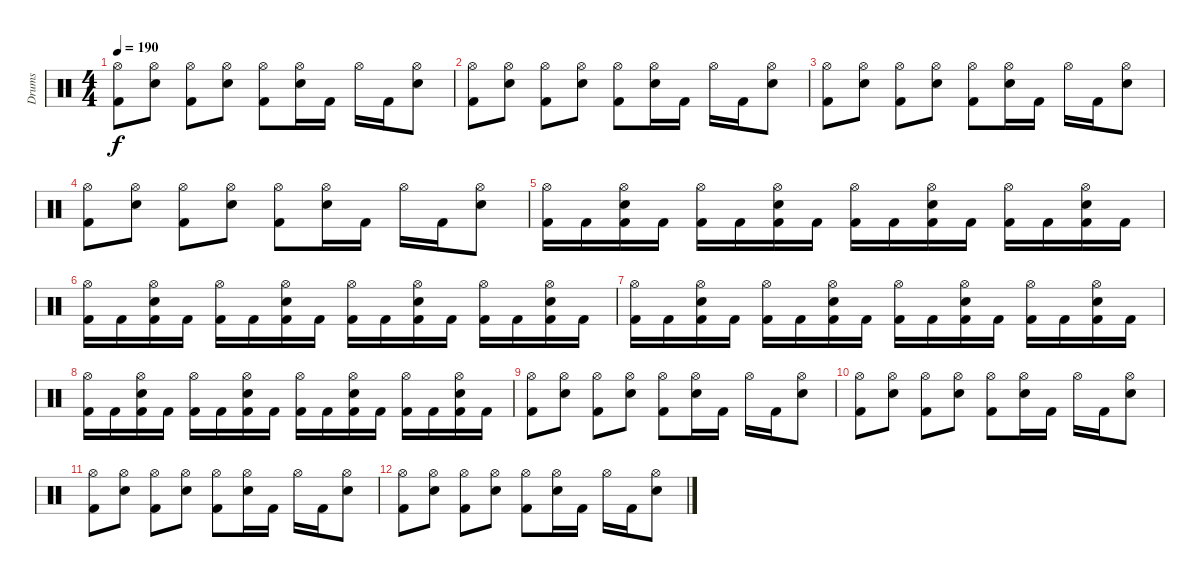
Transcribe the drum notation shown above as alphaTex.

\track ("Drums" "Drums") {instrument percussion}
\staff {score}
\articulation defaults
\ts (4 4)
\tempo 190
\clef neutral
\ks c
("Hi-Hat (open)" "Kick (hit) 2").8{dy f} ("Hi-Hat (open)" "Electric Snare (hit)").8 ("Hi-Hat (open)" "Kick (hit) 2").8 ("Hi-Hat (open)" "Electric Snare (hit)").8 ("Hi-Hat (open)" "Kick (hit) 2").8 ("Hi-Hat (open)" "Electric Snare (hit)").16 "Kick (hit) 2".16 "Hi-Hat (open)".16 "Kick (hit) 2".16 ("Hi-Hat (open)" "Electric Snare (hit)").8 |
("Hi-Hat (open)" "Kick (hit) 2").8 ("Hi-Hat (open)" "Electric Snare (hit)").8 ("Hi-Hat (open)" "Kick (hit) 2").8 ("Hi-Hat (open)" "Electric Snare (hit)").8 ("Hi-Hat (open)" "Kick (hit) 2").8 ("Hi-Hat (open)" "Electric Snare (hit)").16 "Kick (hit) 2".16 "Hi-Hat (open)".16 "Kick (hit) 2".16 ("Hi-Hat (open)" "Electric Snare (hit)").8 |
("Hi-Hat (open)" "Kick (hit) 2").8 ("Hi-Hat (open)" "Electric Snare (hit)").8 ("Hi-Hat (open)" "Kick (hit) 2").8 ("Hi-Hat (open)" "Electric Snare (hit)").8 ("Hi-Hat (open)" "Kick (hit) 2").8 ("Hi-Hat (open)" "Electric Snare (hit)").16 "Kick (hit) 2".16 "Hi-Hat (open)".16 "Kick (hit) 2".16 ("Hi-Hat (open)" "Electric Snare (hit)").8 |
("Hi-Hat (open)" "Kick (hit) 2").8 ("Hi-Hat (open)" "Electric Snare (hit)").8 ("Hi-Hat (open)" "Kick (hit) 2").8 ("Hi-Hat (open)" "Electric Snare (hit)").8 ("Hi-Hat (open)" "Kick (hit) 2").8 ("Hi-Hat (open)" "Electric Snare (hit)").16 "Kick (hit) 2".16 "Hi-Hat (open)".16 "Kick (hit) 2".16 ("Hi-Hat (open)" "Electric Snare (hit)").8 |
("Hi-Hat (open)" "Kick (hit) 2").16 "Kick (hit) 2".16 ("Hi-Hat (open)" "Electric Snare (hit)" "Kick (hit) 2").16 "Kick (hit) 2".16 ("Hi-Hat (open)" "Kick (hit) 2").16 "Kick (hit) 2".16 ("Hi-Hat (open)" "Electric Snare (hit)" "Kick (hit) 2").16 "Kick (hit) 2".16 ("Hi-Hat (open)" "Kick (hit) 2").16 "Kick (hit) 2".16 ("Hi-Hat (open)" "Electric Snare (hit)" "Kick (hit) 2").16 "Kick (hit) 2".16 ("Hi-Hat (open)" "Kick (hit) 2").16 "Kick (hit) 2".16 ("Hi-Hat (open)" "Electric Snare (hit)" "Kick (hit) 2").16 "Kick (hit) 2".16 |
("Hi-Hat (open)" "Kick (hit) 2").16 "Kick (hit) 2".16 ("Hi-Hat (open)" "Electric Snare (hit)" "Kick (hit) 2").16 "Kick (hit) 2".16 ("Hi-Hat (open)" "Kick (hit) 2").16 "Kick (hit) 2".16 ("Hi-Hat (open)" "Electric Snare (hit)" "Kick (hit) 2").16 "Kick (hit) 2".16 ("Hi-Hat (open)" "Kick (hit) 2").16 "Kick (hit) 2".16 ("Hi-Hat (open)" "Electric Snare (hit)" "Kick (hit) 2").16 "Kick (hit) 2".16 ("Hi-Hat (open)" "Kick (hit) 2").16 "Kick (hit) 2".16 ("Hi-Hat (open)" "Electric Snare (hit)" "Kick (hit) 2").16 "Kick (hit) 2".16 |
("Hi-Hat (open)" "Kick (hit) 2").16 "Kick (hit) 2".16 ("Hi-Hat (open)" "Electric Snare (hit)" "Kick (hit) 2").16 "Kick (hit) 2".16 ("Hi-Hat (open)" "Kick (hit) 2").16 "Kick (hit) 2".16 ("Hi-Hat (open)" "Electric Snare (hit)" "Kick (hit) 2").16 "Kick (hit) 2".16 ("Hi-Hat (open)" "Kick (hit) 2").16 "Kick (hit) 2".16 ("Hi-Hat (open)" "Electric Snare (hit)" "Kick (hit) 2").16 "Kick (hit) 2".16 ("Hi-Hat (open)" "Kick (hit) 2").16 "Kick (hit) 2".16 ("Hi-Hat (open)" "Electric Snare (hit)" "Kick (hit) 2").16 "Kick (hit) 2".16 |
("Hi-Hat (open)" "Kick (hit) 2").16 "Kick (hit) 2".16 ("Hi-Hat (open)" "Electric Snare (hit)" "Kick (hit) 2").16 "Kick (hit) 2".16 ("Hi-Hat (open)" "Kick (hit) 2").16 "Kick (hit) 2".16 ("Hi-Hat (open)" "Electric Snare (hit)" "Kick (hit) 2").16 "Kick (hit) 2".16 ("Hi-Hat (open)" "Kick (hit) 2").16 "Kick (hit) 2".16 ("Hi-Hat (open)" "Electric Snare (hit)" "Kick (hit) 2").16 "Kick (hit) 2".16 ("Hi-Hat (open)" "Kick (hit) 2").16 "Kick (hit) 2".16 ("Hi-Hat (open)" "Electric Snare (hit)" "Kick (hit) 2").16 "Kick (hit) 2".16 |
("Hi-Hat (open)" "Kick (hit) 2").8 ("Hi-Hat (open)" "Electric Snare (hit)").8 ("Hi-Hat (open)" "Kick (hit) 2").8 ("Hi-Hat (open)" "Electric Snare (hit)").8 ("Hi-Hat (open)" "Kick (hit) 2").8 ("Hi-Hat (open)" "Electric Snare (hit)").16 "Kick (hit) 2".16 "Hi-Hat (open)".16 "Kick (hit) 2".16 ("Hi-Hat (open)" "Electric Snare (hit)").8 |
("Hi-Hat (open)" "Kick (hit) 2").8 ("Hi-Hat (open)" "Electric Snare (hit)").8 ("Hi-Hat (open)" "Kick (hit) 2").8 ("Hi-Hat (open)" "Electric Snare (hit)").8 ("Hi-Hat (open)" "Kick (hit) 2").8 ("Hi-Hat (open)" "Electric Snare (hit)").16 "Kick (hit) 2".16 "Hi-Hat (open)".16 "Kick (hit) 2".16 ("Hi-Hat (open)" "Electric Snare (hit)").8 |
("Hi-Hat (open)" "Kick (hit) 2").8 ("Hi-Hat (open)" "Electric Snare (hit)").8 ("Hi-Hat (open)" "Kick (hit) 2").8 ("Hi-Hat (open)" "Electric Snare (hit)").8 ("Hi-Hat (open)" "Kick (hit) 2").8 ("Hi-Hat (open)" "Electric Snare (hit)").16 "Kick (hit) 2".16 "Hi-Hat (open)".16 "Kick (hit) 2".16 ("Hi-Hat (open)" "Electric Snare (hit)").8 |
("Hi-Hat (open)" "Kick (hit) 2").8 ("Hi-Hat (open)" "Electric Snare (hit)").8 ("Hi-Hat (open)" "Kick (hit) 2").8 ("Hi-Hat (open)" "Electric Snare (hit)").8 ("Hi-Hat (open)" "Kick (hit) 2").8 ("Hi-Hat (open)" "Electric Snare (hit)").16 "Kick (hit) 2".16 "Hi-Hat (open)".16 "Kick (hit) 2".16 ("Hi-Hat (open)" "Electric Snare (hit)").8
